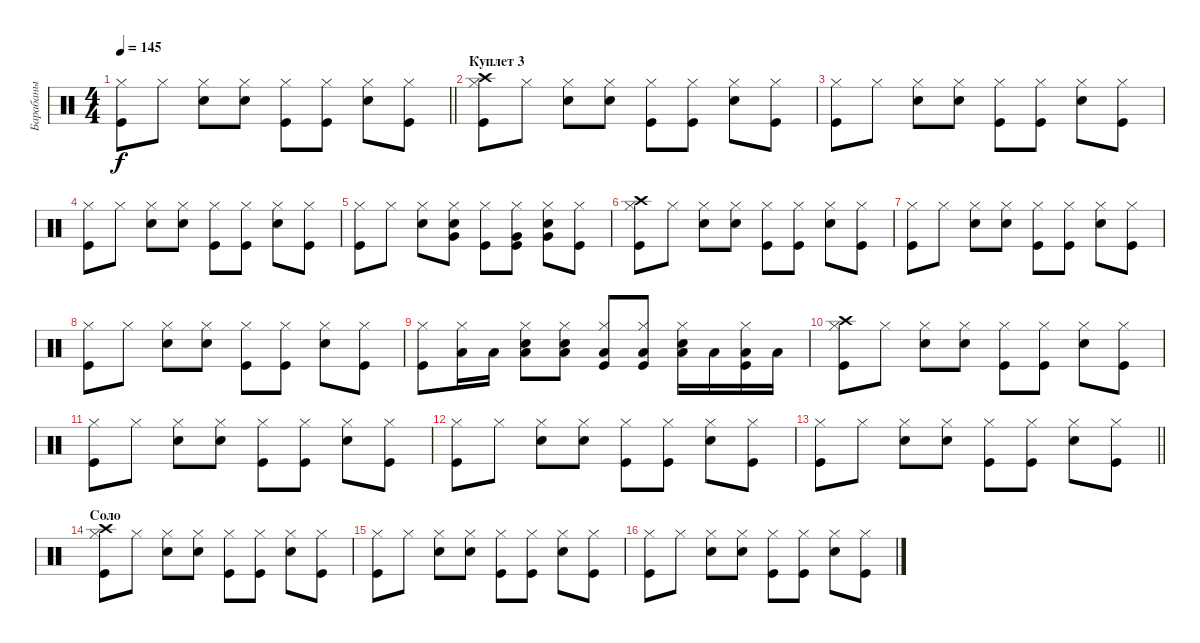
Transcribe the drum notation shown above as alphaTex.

\track ("Барабаны" "Барабаны") {instrument percussion}
\staff {score}
\articulation defaults
\ts (4 4)
\tempo 145
\clef neutral
\barLineRight lightlight
\ks c
("Kick (hit)" "Hi-Hat (closed)").8{dy f} "Hi-Hat (closed)".8 ("Snare (hit) 2" "Hi-Hat (closed)").8 ("Snare (hit) 2" "Hi-Hat (closed)").8 ("Kick (hit)" "Hi-Hat (closed)").8 ("Kick (hit)" "Hi-Hat (closed)").8 ("Snare (hit) 2" "Hi-Hat (closed)").8 ("Kick (hit)" "Hi-Hat (closed)").8 |
\section ("" "Куплет 3")
("Kick (hit)" "Hi-Hat (closed)" "Crash high (hit)").8 "Hi-Hat (closed)".8 ("Snare (hit) 2" "Hi-Hat (closed)").8 ("Snare (hit) 2" "Hi-Hat (closed)").8 ("Kick (hit)" "Hi-Hat (closed)").8 ("Kick (hit)" "Hi-Hat (closed)").8 ("Snare (hit) 2" "Hi-Hat (closed)").8 ("Kick (hit)" "Hi-Hat (closed)").8 |
("Kick (hit)" "Hi-Hat (closed)").8 "Hi-Hat (closed)".8 ("Snare (hit) 2" "Hi-Hat (closed)").8 ("Snare (hit) 2" "Hi-Hat (closed)").8 ("Kick (hit)" "Hi-Hat (closed)").8 ("Kick (hit)" "Hi-Hat (closed)").8 ("Snare (hit) 2" "Hi-Hat (closed)").8 ("Kick (hit)" "Hi-Hat (closed)").8 |
("Kick (hit)" "Hi-Hat (closed)").8 "Hi-Hat (closed)".8 ("Snare (hit) 2" "Hi-Hat (closed)").8 ("Snare (hit) 2" "Hi-Hat (closed)").8 ("Kick (hit)" "Hi-Hat (closed)").8 ("Kick (hit)" "Hi-Hat (closed)").8 ("Snare (hit) 2" "Hi-Hat (closed)").8 ("Kick (hit)" "Hi-Hat (closed)").8 |
("Kick (hit)" "Hi-Hat (closed)").8 "Hi-Hat (closed)".8 ("Snare (hit) 2" "Hi-Hat (closed)").8 ("Snare (hit) 2" "Hi-Hat (closed)" "Very Low Tom (hit)").8 ("Kick (hit)" "Hi-Hat (closed)").8 ("Kick (hit)" "Hi-Hat (closed)" "Very Low Tom (hit)").8 ("Snare (hit) 2" "Hi-Hat (closed)" "Very Low Tom (hit)").8 ("Kick (hit)" "Hi-Hat (closed)").8 |
("Kick (hit)" "Hi-Hat (closed)" "Crash high (hit)").8 "Hi-Hat (closed)".8 ("Snare (hit) 2" "Hi-Hat (closed)").8 ("Snare (hit) 2" "Hi-Hat (closed)").8 ("Kick (hit)" "Hi-Hat (closed)").8 ("Kick (hit)" "Hi-Hat (closed)").8 ("Snare (hit) 2" "Hi-Hat (closed)").8 ("Kick (hit)" "Hi-Hat (closed)").8 |
("Kick (hit)" "Hi-Hat (closed)").8 "Hi-Hat (closed)".8 ("Snare (hit) 2" "Hi-Hat (closed)").8 ("Snare (hit) 2" "Hi-Hat (closed)").8 ("Kick (hit)" "Hi-Hat (closed)").8 ("Kick (hit)" "Hi-Hat (closed)").8 ("Snare (hit) 2" "Hi-Hat (closed)").8 ("Kick (hit)" "Hi-Hat (closed)").8 |
("Kick (hit)" "Hi-Hat (closed)").8 "Hi-Hat (closed)".8 ("Snare (hit) 2" "Hi-Hat (closed)").8 ("Snare (hit) 2" "Hi-Hat (closed)").8 ("Kick (hit)" "Hi-Hat (closed)").8 ("Kick (hit)" "Hi-Hat (closed)").8 ("Snare (hit) 2" "Hi-Hat (closed)").8 ("Kick (hit)" "Hi-Hat (closed)").8 |
("Kick (hit)" "Hi-Hat (closed)").8 ("Hi-Hat (closed)" "Low Floor Tom (hit)").16 "Low Floor Tom (hit)".16 ("Snare (hit) 2" "Hi-Hat (closed)" "Low Floor Tom (hit)").8 ("Snare (hit) 2" "Hi-Hat (closed)" "Low Floor Tom (hit)").8 ("Kick (hit)" "Hi-Hat (closed)" "Low Floor Tom (hit)").8 ("Kick (hit)" "Hi-Hat (closed)" "Low Floor Tom (hit)").8 ("Snare (hit) 2" "Hi-Hat (closed)" "Low Tom (hit)").16 "Low Tom (hit)".16 ("Kick (hit)" "Hi-Hat (closed)" "Low Tom (hit)").16 "Low Tom (hit)".16 |
("Kick (hit)" "Hi-Hat (closed)" "Crash high (hit)").8 "Hi-Hat (closed)".8 ("Snare (hit) 2" "Hi-Hat (closed)").8 ("Snare (hit) 2" "Hi-Hat (closed)").8 ("Kick (hit)" "Hi-Hat (closed)").8 ("Kick (hit)" "Hi-Hat (closed)").8 ("Snare (hit) 2" "Hi-Hat (closed)").8 ("Kick (hit)" "Hi-Hat (closed)").8 |
("Kick (hit)" "Hi-Hat (closed)").8 "Hi-Hat (closed)".8 ("Snare (hit) 2" "Hi-Hat (closed)").8 ("Snare (hit) 2" "Hi-Hat (closed)").8 ("Kick (hit)" "Hi-Hat (closed)").8 ("Kick (hit)" "Hi-Hat (closed)").8 ("Snare (hit) 2" "Hi-Hat (closed)").8 ("Kick (hit)" "Hi-Hat (closed)").8 |
("Kick (hit)" "Hi-Hat (closed)").8 "Hi-Hat (closed)".8 ("Snare (hit) 2" "Hi-Hat (closed)").8 ("Snare (hit) 2" "Hi-Hat (closed)").8 ("Kick (hit)" "Hi-Hat (closed)").8 ("Kick (hit)" "Hi-Hat (closed)").8 ("Snare (hit) 2" "Hi-Hat (closed)").8 ("Kick (hit)" "Hi-Hat (closed)").8 |
\barLineRight lightlight
("Kick (hit)" "Hi-Hat (closed)").8 "Hi-Hat (closed)".8 ("Snare (hit) 2" "Hi-Hat (closed)").8 ("Snare (hit) 2" "Hi-Hat (closed)").8 ("Kick (hit)" "Hi-Hat (closed)").8 ("Kick (hit)" "Hi-Hat (closed)").8 ("Snare (hit) 2" "Hi-Hat (closed)").8 ("Kick (hit)" "Hi-Hat (closed)").8 |
\section ("" "Соло")
("Kick (hit)" "Hi-Hat (closed)" "Crash high (hit)").8 "Hi-Hat (closed)".8 ("Snare (hit) 2" "Hi-Hat (closed)").8 ("Snare (hit) 2" "Hi-Hat (closed)").8 ("Kick (hit)" "Hi-Hat (closed)").8 ("Kick (hit)" "Hi-Hat (closed)").8 ("Snare (hit) 2" "Hi-Hat (closed)").8 ("Kick (hit)" "Hi-Hat (closed)").8 |
("Kick (hit)" "Hi-Hat (closed)").8 "Hi-Hat (closed)".8 ("Snare (hit) 2" "Hi-Hat (closed)").8 ("Snare (hit) 2" "Hi-Hat (closed)").8 ("Kick (hit)" "Hi-Hat (closed)").8 ("Kick (hit)" "Hi-Hat (closed)").8 ("Snare (hit) 2" "Hi-Hat (closed)").8 ("Kick (hit)" "Hi-Hat (closed)").8 |
("Kick (hit)" "Hi-Hat (closed)").8 "Hi-Hat (closed)".8 ("Snare (hit) 2" "Hi-Hat (closed)").8 ("Snare (hit) 2" "Hi-Hat (closed)").8 ("Kick (hit)" "Hi-Hat (closed)").8 ("Kick (hit)" "Hi-Hat (closed)").8 ("Snare (hit) 2" "Hi-Hat (closed)").8 ("Kick (hit)" "Hi-Hat (closed)").8
